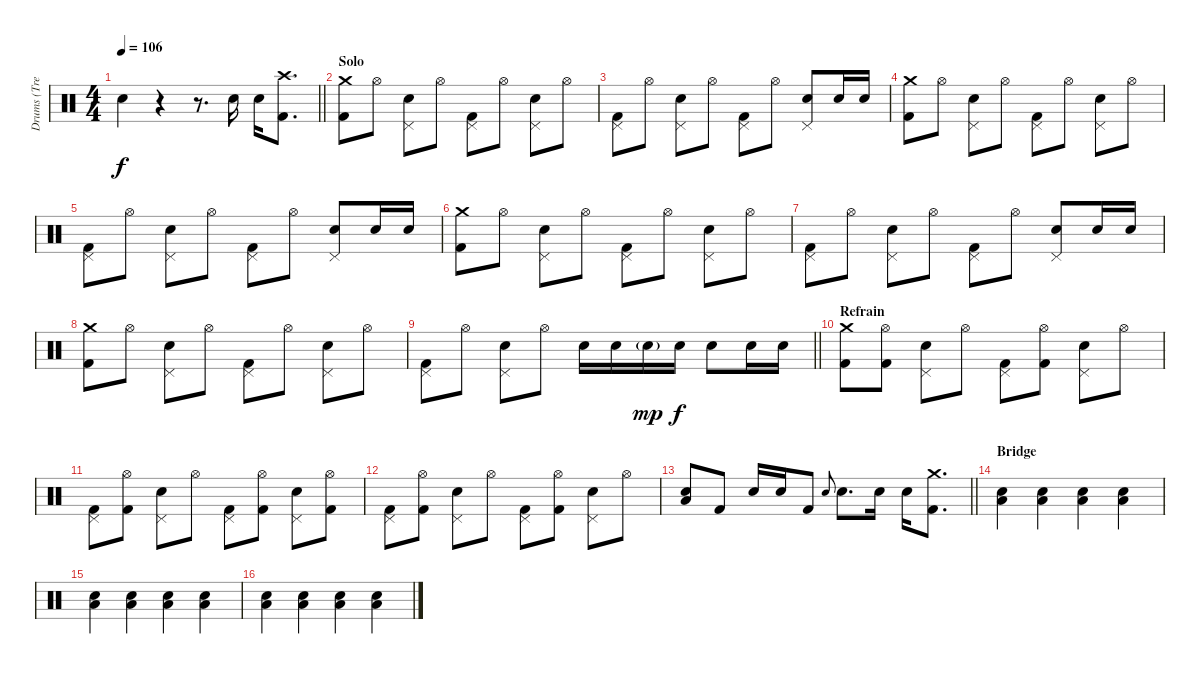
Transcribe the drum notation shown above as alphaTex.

\track ("Drums (Tre Cool)" "Drums (Tre") {instrument percussion}
\staff {score}
\articulation defaults
\ts (4 4)
\tempo 106
\clef neutral
\barLineRight lightlight
\ks c "Electric Snare (hit)".4{dy f}
r.4 r.8{d} "Electric Snare (hit)".16 "Electric Snare (hit)".16 ("Crash high (hit)" "Kick (hit) 2").8{d} |
\section ("" "Solo")
("Crash medium (hit)" "Kick (hit) 2").8 "Hi-Hat (open)".8 ("Pedal Hi-Hat (hit)" "Electric Snare (hit)").8 "Hi-Hat (open)".8 ("Pedal Hi-Hat (hit)" "Kick (hit) 2").8 "Hi-Hat (open)".8 ("Pedal Hi-Hat (hit)" "Electric Snare (hit)").8 "Hi-Hat (open)".8 |
("Pedal Hi-Hat (hit)" "Kick (hit) 2").8 "Hi-Hat (open)".8 ("Pedal Hi-Hat (hit)" "Electric Snare (hit)").8 "Hi-Hat (open)".8 ("Pedal Hi-Hat (hit)" "Kick (hit) 2").8 "Hi-Hat (open)".8 ("Pedal Hi-Hat (hit)" "Electric Snare (hit)").8 "Electric Snare (hit)".16 "Electric Snare (hit)".16 |
("Crash medium (hit)" "Kick (hit) 2").8 "Hi-Hat (open)".8 ("Pedal Hi-Hat (hit)" "Electric Snare (hit)").8 "Hi-Hat (open)".8 ("Pedal Hi-Hat (hit)" "Kick (hit) 2").8 "Hi-Hat (open)".8 ("Pedal Hi-Hat (hit)" "Electric Snare (hit)").8 "Hi-Hat (open)".8 |
("Pedal Hi-Hat (hit)" "Kick (hit) 2").8 "Hi-Hat (open)".8 ("Pedal Hi-Hat (hit)" "Electric Snare (hit)").8 "Hi-Hat (open)".8 ("Pedal Hi-Hat (hit)" "Kick (hit) 2").8 "Hi-Hat (open)".8 ("Pedal Hi-Hat (hit)" "Electric Snare (hit)").8 "Electric Snare (hit)".16 "Electric Snare (hit)".16 |
("Crash medium (hit)" "Kick (hit) 2").8 "Hi-Hat (open)".8 ("Pedal Hi-Hat (hit)" "Electric Snare (hit)").8 "Hi-Hat (open)".8 ("Pedal Hi-Hat (hit)" "Kick (hit) 2").8 "Hi-Hat (open)".8 ("Pedal Hi-Hat (hit)" "Electric Snare (hit)").8 "Hi-Hat (open)".8 |
("Pedal Hi-Hat (hit)" "Kick (hit) 2").8 "Hi-Hat (open)".8 ("Pedal Hi-Hat (hit)" "Electric Snare (hit)").8 "Hi-Hat (open)".8 ("Pedal Hi-Hat (hit)" "Kick (hit) 2").8 "Hi-Hat (open)".8 ("Pedal Hi-Hat (hit)" "Electric Snare (hit)").8 "Electric Snare (hit)".16 "Electric Snare (hit)".16 |
("Crash medium (hit)" "Kick (hit) 2").8 "Hi-Hat (open)".8 ("Pedal Hi-Hat (hit)" "Electric Snare (hit)").8 "Hi-Hat (open)".8 ("Pedal Hi-Hat (hit)" "Kick (hit) 2").8 "Hi-Hat (open)".8 ("Pedal Hi-Hat (hit)" "Electric Snare (hit)").8 "Hi-Hat (open)".8 |
\barLineRight lightlight
("Pedal Hi-Hat (hit)" "Kick (hit) 2").8 "Hi-Hat (open)".8 ("Pedal Hi-Hat (hit)" "Electric Snare (hit)").8 "Hi-Hat (open)".8 "Electric Snare (hit)".16 "Electric Snare (hit)".16 "Electric Snare (hit)"{g}.16{dy mp} "Electric Snare (hit)".16{dy f} "Electric Snare (hit)".8 "Electric Snare (hit)".16 "Electric Snare (hit)".16 |
\section ("" "Refrain")
("Crash medium (hit)" "Kick (hit) 2").8 ("Hi-Hat (open)" "Kick (hit) 2").8 ("Pedal Hi-Hat (hit)" "Electric Snare (hit)").8 "Hi-Hat (open)".8 ("Pedal Hi-Hat (hit)" "Kick (hit) 2").8 ("Hi-Hat (open)" "Kick (hit) 2").8 ("Pedal Hi-Hat (hit)" "Electric Snare (hit)").8 "Hi-Hat (open)".8 |
("Pedal Hi-Hat (hit)" "Kick (hit) 2").8 ("Hi-Hat (open)" "Kick (hit) 2").8 ("Pedal Hi-Hat (hit)" "Electric Snare (hit)").8 "Hi-Hat (open)".8 ("Pedal Hi-Hat (hit)" "Kick (hit) 2").8 ("Hi-Hat (open)" "Kick (hit) 2").8 ("Pedal Hi-Hat (hit)" "Electric Snare (hit)").8 ("Hi-Hat (open)" "Kick (hit) 2").8 |
("Pedal Hi-Hat (hit)" "Kick (hit) 2").8 ("Hi-Hat (open)" "Kick (hit) 2").8 ("Pedal Hi-Hat (hit)" "Electric Snare (hit)").8 "Hi-Hat (open)".8 ("Pedal Hi-Hat (hit)" "Kick (hit) 2").8 ("Hi-Hat (open)" "Kick (hit) 2").8 ("Pedal Hi-Hat (hit)" "Electric Snare (hit)").8 "Hi-Hat (open)".8 |
\barLineRight lightlight
("Electric Snare (hit)" "Low Floor Tom (hit)").8 "Kick (hit) 2".8 "Electric Snare (hit)".16 "Electric Snare (hit)".16 "Kick (hit) 2".8 "Electric Snare (hit)".8{gr onbeat} "Electric Snare (hit)".8{d} "Electric Snare (hit)".16 "Electric Snare (hit)".16 ("Crash medium (hit)" "Kick (hit) 2").8{d} |
\section ("" "Bridge")
("Electric Snare (hit)" "Low Floor Tom (hit)").4 ("Electric Snare (hit)" "Low Floor Tom (hit)").4 ("Electric Snare (hit)" "Low Floor Tom (hit)").4 ("Electric Snare (hit)" "Low Floor Tom (hit)").4 |
("Electric Snare (hit)" "Low Floor Tom (hit)").4 ("Electric Snare (hit)" "Low Floor Tom (hit)").4 ("Electric Snare (hit)" "Low Floor Tom (hit)").4 ("Electric Snare (hit)" "Low Floor Tom (hit)").4 |
("Electric Snare (hit)" "Low Floor Tom (hit)").4 ("Electric Snare (hit)" "Low Floor Tom (hit)").4 ("Electric Snare (hit)" "Low Floor Tom (hit)").4 ("Electric Snare (hit)" "Low Floor Tom (hit)").4
